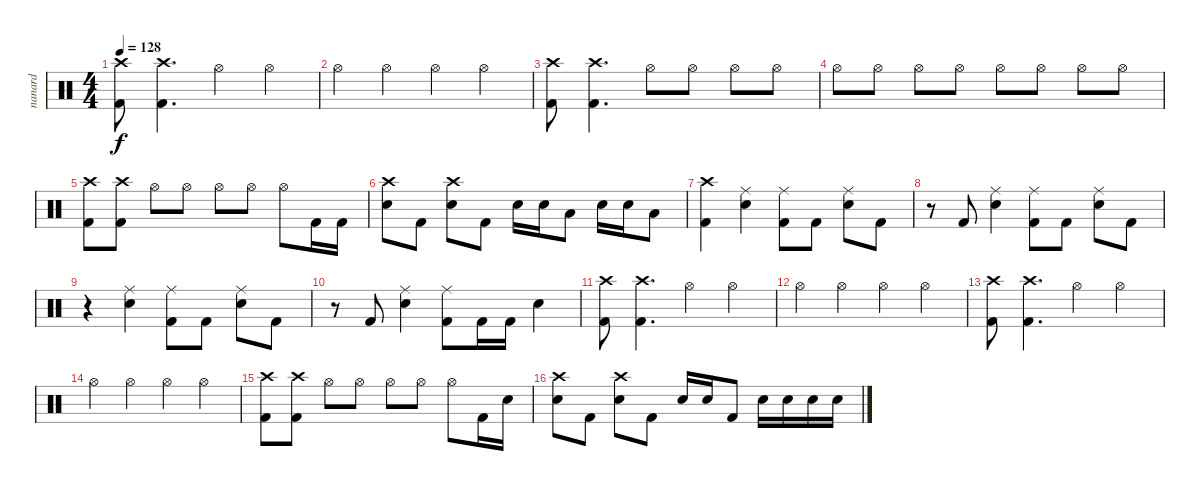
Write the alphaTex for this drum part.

\track ("nanard" "nanard") {instrument percussion}
\staff {score}
\articulation defaults
\ts (4 4)
\tempo 128
\clef neutral
\ks c
("Crash high (hit)" "Kick (hit) 2").8{dy f} ("Crash high (hit)" "Kick (hit) 2").4{d} "Hi-Hat (open)".4 "Hi-Hat (open)".4 |
"Hi-Hat (open)".4 "Hi-Hat (open)".4 "Hi-Hat (open)".4 "Hi-Hat (open)".4 |
("Crash high (hit)" "Kick (hit) 2").8 ("Crash high (hit)" "Kick (hit) 2").4{d} "Hi-Hat (open)".8 "Hi-Hat (open)".8 "Hi-Hat (open)".8 "Hi-Hat (open)".8 |
"Hi-Hat (open)".8 "Hi-Hat (open)".8 "Hi-Hat (open)".8 "Hi-Hat (open)".8 "Hi-Hat (open)".8 "Hi-Hat (open)".8 "Hi-Hat (open)".8 "Hi-Hat (open)".8 |
("Crash high (hit)" "Kick (hit) 2").8 ("Crash high (hit)" "Kick (hit) 2").8 "Hi-Hat (open)".8 "Hi-Hat (open)".8 "Hi-Hat (open)".8 "Hi-Hat (open)".8 "Hi-Hat (open)".8 "Kick (hit) 2".16 "Kick (hit) 2".16 |
("Crash high (hit)" "Electric Snare (hit)").8 "Kick (hit) 2".8 ("Crash high (hit)" "Electric Snare (hit)").8 "Kick (hit) 2".8 "Electric Snare (hit)".16 "Electric Snare (hit)".16 "Low Tom (hit)".8 "Electric Snare (hit)".16 "Electric Snare (hit)".16 "Low Tom (hit)".8 |
("Crash high (hit)" "Kick (hit) 2").4 ("Ride (middle)" "Electric Snare (hit)").4 ("Ride (middle)" "Kick (hit) 2").8 "Kick (hit) 2".8 ("Ride (middle)" "Electric Snare (hit)").8 "Kick (hit) 2".8 |
r.8 "Kick (hit) 2".8 ("Ride (middle)" "Electric Snare (hit)").4 ("Ride (middle)" "Kick (hit) 2").8 "Kick (hit) 2".8 ("Ride (middle)" "Electric Snare (hit)").8 "Kick (hit) 2".8 |
r.4 ("Ride (middle)" "Electric Snare (hit)").4 ("Ride (middle)" "Kick (hit) 2").8 "Kick (hit) 2".8 ("Ride (middle)" "Electric Snare (hit)").8 "Kick (hit) 2".8 |
r.8 "Kick (hit) 2".8 ("Ride (middle)" "Electric Snare (hit)").4 ("Ride (middle)" "Kick (hit) 2").8 "Kick (hit) 2".16 "Kick (hit) 2".16 "Electric Snare (hit)".4 |
("Crash high (hit)" "Kick (hit) 2").8 ("Crash high (hit)" "Kick (hit) 2").4{d} "Hi-Hat (open)".4 "Hi-Hat (open)".4 |
"Hi-Hat (open)".4 "Hi-Hat (open)".4 "Hi-Hat (open)".4 "Hi-Hat (open)".4 |
("Crash high (hit)" "Kick (hit) 2").8 ("Crash high (hit)" "Kick (hit) 2").4{d} "Hi-Hat (open)".4 "Hi-Hat (open)".4 |
"Hi-Hat (open)".4 "Hi-Hat (open)".4 "Hi-Hat (open)".4 "Hi-Hat (open)".4 |
("Crash high (hit)" "Kick (hit) 2").8 ("Crash high (hit)" "Kick (hit) 2").8 "Hi-Hat (open)".8 "Hi-Hat (open)".8 "Hi-Hat (open)".8 "Hi-Hat (open)".8 "Hi-Hat (open)".8 "Kick (hit) 2".16 "Snare (hit)".16 |
("Crash high (hit)" "Electric Snare (hit)").8 "Kick (hit) 2".8 ("Crash high (hit)" "Electric Snare (hit)").8 "Kick (hit) 2".8 "Electric Snare (hit)".16 "Electric Snare (hit)".16 "Kick (hit) 2".8 "Electric Snare (hit)".16 "Electric Snare (hit)".16 "Electric Snare (hit)".16 "Electric Snare (hit)".16
